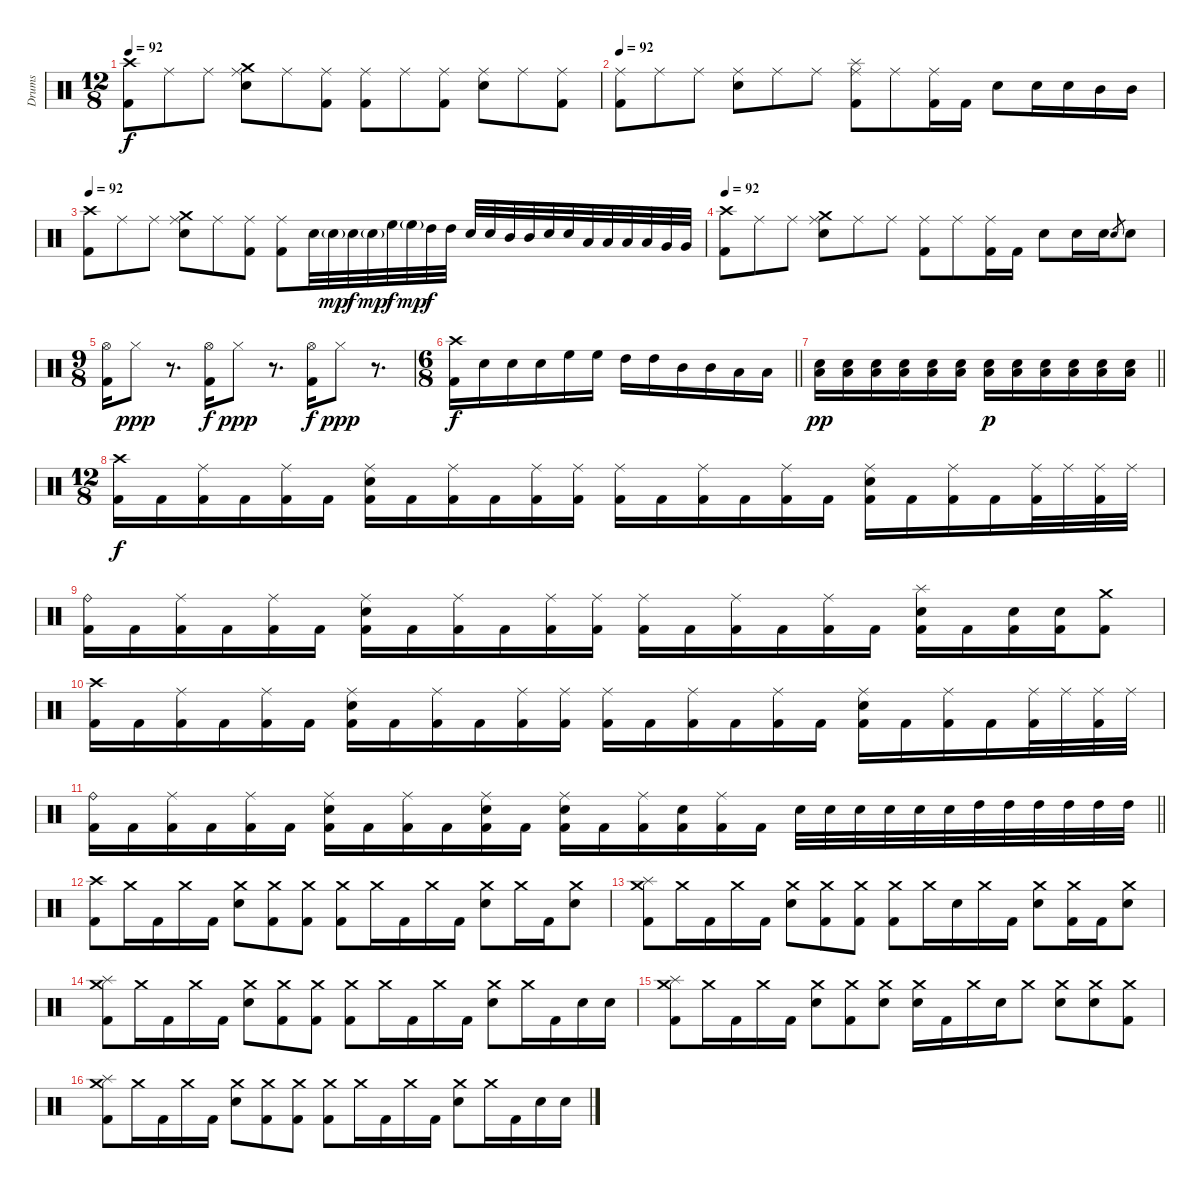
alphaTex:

\track ("Drums" "Drums") {instrument percussion}
\staff {score}
\articulation defaults
\ts (12 8)
\tempo 92
\clef neutral
\ks c
("Crash high (hit)" "Kick (hit) 2").8{dy f} "Ride (middle)".8 "Ride (middle)".8 ("Crash medium (hit)" "Ride (middle)" "Electric Snare (hit)").8 "Ride (middle)".8 ("Ride (middle)" "Kick (hit) 2").8 ("Ride (middle)" "Kick (hit) 2").8 "Ride (middle)".8 ("Ride (middle)" "Kick (hit) 2").8 ("Ride (middle)" "Electric Snare (hit)").8 "Ride (middle)".8 ("Ride (middle)" "Kick (hit) 2").8 |
\tempo 92
("Ride (middle)" "Kick (hit) 2").8 "Ride (middle)".8 "Ride (middle)".8 ("Ride (middle)" "Electric Snare (hit)").8 "Ride (middle)".8 "Ride (middle)".8 ("Splash (hit)" "Ride (middle)" "Kick (hit) 2").8 "Ride (middle)".8 ("Ride (middle)" "Kick (hit) 2").16 "Kick (hit) 2".16 "Electric Snare (hit)".8 "Electric Snare (hit)".16 "Electric Snare (hit)".16 "Mid Tom (hit)".16 "Mid Tom (hit)".16 |
\tempo 92
("Crash high (hit)" "Kick (hit) 2").8 "Ride (middle)".8 "Ride (middle)".8 ("Crash medium (hit)" "Ride (middle)" "Electric Snare (hit)").8 "Ride (middle)".8 ("Ride (middle)" "Kick (hit) 2").8 ("Ride (middle)" "Kick (hit) 2").8 "Electric Snare (hit)".32 "Electric Snare (hit)"{g}.32{dy mp} "Electric Snare (hit)".32{dy f} "Electric Snare (hit)"{g}.32{dy mp} "High Floor Tom (hit)".32{dy f} "High Floor Tom (hit)"{g}.32{dy mp} "High Tom (hit)".32{dy f} "High Tom (hit)".32 "Electric Snare (hit)".32 "Electric Snare (hit)".32 "Mid Tom (hit)".32 "Mid Tom (hit)".32 "Electric Snare (hit)".32 "Electric Snare (hit)".32 "Low Tom (hit)".32 "Low Tom (hit)".32 "Low Tom (hit)".32 "Low Tom (hit)".32 "Very Low Tom (hit)".32 "Very Low Tom (hit)".32 |
\tempo 92
("Crash high (hit)" "Kick (hit) 2").8 "Ride (middle)".8 "Ride (middle)".8 ("Crash medium (hit)" "Ride (middle)" "Electric Snare (hit)").8 "Ride (middle)".8 "Ride (middle)".8 ("Ride (middle)" "Kick (hit) 2").8 "Ride (middle)".8 ("Ride (middle)" "Kick (hit) 2").16 "Kick (hit) 2".16 "Electric Snare (hit)".8 "Electric Snare (hit)".16 "Electric Snare (hit)".16 "Electric Snare (hit)".8{gr} "Electric Snare (hit)".8 |
\ts (9 8)
("Hi-Hat (open)" "Kick (hit) 2").16 "Hi-Hat (closed)".8{dy ppp} r.8{d} ("Hi-Hat (open)" "Kick (hit) 2").16{dy f} "Hi-Hat (closed)".8{dy ppp} r.8{d} ("Hi-Hat (open)" "Kick (hit) 2").16{dy f} "Hi-Hat (closed)".8{dy ppp} r.8{d} |
\ts (6 8)
\barLineRight lightlight
("Crash high (hit)" "Kick (hit) 2").16{dy f} "Electric Snare (hit)".16 "Electric Snare (hit)".16 "Electric Snare (hit)".16 "High Floor Tom (hit)".16 "High Floor Tom (hit)".16 "High Tom (hit)".16 "High Tom (hit)".16 "Mid Tom (hit)".16 "Mid Tom (hit)".16 "Low Tom (hit)".16 "Low Tom (hit)".16 |
\barLineRight lightlight
("Low Tom (hit)" "Electric Snare (hit)").16{dy pp} ("Low Tom (hit)" "Electric Snare (hit)").16 ("Low Tom (hit)" "Electric Snare (hit)").16 ("Low Tom (hit)" "Electric Snare (hit)").16 ("Low Tom (hit)" "Electric Snare (hit)").16 ("Low Tom (hit)" "Electric Snare (hit)").16 ("Low Tom (hit)" "Electric Snare (hit)").16{dy p} ("Low Tom (hit)" "Electric Snare (hit)").16 ("Low Tom (hit)" "Electric Snare (hit)").16 ("Low Tom (hit)" "Electric Snare (hit)").16 ("Low Tom (hit)" "Electric Snare (hit)").16 ("Low Tom (hit)" "Electric Snare (hit)").16 |
\ts (12 8)
("Crash high (hit)" "Kick (hit) 2").16{dy f} "Kick (hit) 2".16 ("Ride (middle)" "Kick (hit) 2").16 "Kick (hit) 2".16 ("Ride (middle)" "Kick (hit) 2").16 "Kick (hit) 2".16 ("Ride (middle)" "Electric Snare (hit)" "Kick (hit) 2").16 "Kick (hit) 2".16 ("Ride (middle)" "Kick (hit) 2").16 "Kick (hit) 2".16 ("Ride (middle)" "Kick (hit) 2").16 ("Ride (middle)" "Kick (hit) 2").16 ("Ride (middle)" "Kick (hit) 2").16 "Kick (hit) 2".16 ("Ride (middle)" "Kick (hit) 2").16 "Kick (hit) 2".16 ("Ride (middle)" "Kick (hit) 2").16 "Kick (hit) 2".16 ("Ride (middle)" "Electric Snare (hit)" "Kick (hit) 2").16 "Kick (hit) 2".16 ("Ride (middle)" "Kick (hit) 2").16 "Kick (hit) 2".16 ("Ride (middle)" "Kick (hit) 2").32 "Ride (middle)".32 ("Ride (middle)" "Kick (hit) 2").32 "Ride (middle)".32 |
("Ride (bell)" "Kick (hit) 2").16 "Kick (hit) 2".16 ("Ride (middle)" "Kick (hit) 2").16 "Kick (hit) 2".16 ("Ride (middle)" "Kick (hit) 2").16 "Kick (hit) 2".16 ("Ride (middle)" "Electric Snare (hit)" "Kick (hit) 2").16 "Kick (hit) 2".16 ("Ride (middle)" "Kick (hit) 2").16 "Kick (hit) 2".16 ("Ride (middle)" "Kick (hit) 2").16 ("Ride (middle)" "Kick (hit) 2").16 ("Ride (middle)" "Kick (hit) 2").16 "Kick (hit) 2".16 ("Ride (middle)" "Kick (hit) 2").16 "Kick (hit) 2".16 ("Ride (middle)" "Kick (hit) 2").16 "Kick (hit) 2".16 ("Splash (hit)" "Electric Snare (hit)" "Kick (hit) 2").16 "Kick (hit) 2".16 ("Electric Snare (hit)" "Kick (hit) 2").16 ("Electric Snare (hit)" "Kick (hit) 2").16 ("Crash medium (hit)" "Kick (hit) 2").8 |
("Crash high (hit)" "Kick (hit) 2").16 "Kick (hit) 2".16 ("Ride (middle)" "Kick (hit) 2").16 "Kick (hit) 2".16 ("Ride (middle)" "Kick (hit) 2").16 "Kick (hit) 2".16 ("Ride (middle)" "Electric Snare (hit)" "Kick (hit) 2").16 "Kick (hit) 2".16 ("Ride (middle)" "Kick (hit) 2").16 "Kick (hit) 2".16 ("Ride (middle)" "Kick (hit) 2").16 ("Ride (middle)" "Kick (hit) 2").16 ("Ride (middle)" "Kick (hit) 2").16 "Kick (hit) 2".16 ("Ride (middle)" "Kick (hit) 2").16 "Kick (hit) 2".16 ("Ride (middle)" "Kick (hit) 2").16 "Kick (hit) 2".16 ("Ride (middle)" "Electric Snare (hit)" "Kick (hit) 2").16 "Kick (hit) 2".16 ("Ride (middle)" "Kick (hit) 2").16 "Kick (hit) 2".16 ("Ride (middle)" "Kick (hit) 2").32 "Ride (middle)".32 ("Ride (middle)" "Kick (hit) 2").32 "Ride (middle)".32 |
\barLineRight lightlight
("Ride (bell)" "Kick (hit) 2").16 "Kick (hit) 2".16 ("Ride (middle)" "Kick (hit) 2").16 "Kick (hit) 2".16 ("Ride (middle)" "Kick (hit) 2").16 "Kick (hit) 2".16 ("Ride (middle)" "Electric Snare (hit)" "Kick (hit) 2").16 "Kick (hit) 2".16 ("Ride (middle)" "Kick (hit) 2").16 "Kick (hit) 2".16 ("Ride (middle)" "Electric Snare (hit)" "Kick (hit) 2").16 "Kick (hit) 2".16 ("Ride (middle)" "Electric Snare (hit)" "Kick (hit) 2").16 "Kick (hit) 2".16 ("Ride (middle)" "Kick (hit) 2").16 ("Electric Snare (hit)" "Kick (hit) 2").16 ("Ride (middle)" "Kick (hit) 2").16 "Kick (hit) 2".16 "Electric Snare (hit)".32 "Electric Snare (hit)".32 "Electric Snare (hit)".32 "Electric Snare (hit)".32 "Electric Snare (hit)".32 "Electric Snare (hit)".32 "High Tom (hit)".32 "High Tom (hit)".32 "High Tom (hit)".32 "High Tom (hit)".32 "High Tom (hit)".32 "High Tom (hit)".32 |
("Crash high (hit)" "Kick (hit) 2").8 "Crash medium (hit)".16 "Kick (hit) 2".16 "Crash medium (hit)".16 "Kick (hit) 2".16 ("Crash medium (hit)" "Electric Snare (hit)").8 ("Crash medium (hit)" "Kick (hit) 2").8 ("Crash medium (hit)" "Kick (hit) 2").8 ("Crash medium (hit)" "Kick (hit) 2").8 "Crash medium (hit)".16 "Kick (hit) 2".16 "Crash medium (hit)".16 "Kick (hit) 2".16 ("Crash medium (hit)" "Electric Snare (hit)").8 "Crash medium (hit)".16 "Kick (hit) 2".16 ("Crash medium (hit)" "Electric Snare (hit)").8 |
("Crash medium (hit)" "Splash (hit)" "Kick (hit) 2").8 "Crash medium (hit)".16 "Kick (hit) 2".16 "Crash medium (hit)".16 "Kick (hit) 2".16 ("Crash medium (hit)" "Electric Snare (hit)").8 ("Crash medium (hit)" "Kick (hit) 2").8 ("Crash medium (hit)" "Kick (hit) 2").8 ("Crash medium (hit)" "Kick (hit) 2").8 "Crash medium (hit)".16 "Electric Snare (hit)".16 "Crash medium (hit)".16 "Kick (hit) 2".16 ("Crash medium (hit)" "Electric Snare (hit)").8 ("Crash medium (hit)" "Kick (hit) 2").16 "Kick (hit) 2".16 ("Crash medium (hit)" "Electric Snare (hit)").8 |
("Crash medium (hit)" "Splash (hit)" "Kick (hit) 2").8 "Crash medium (hit)".16 "Kick (hit) 2".16 "Crash medium (hit)".16 "Kick (hit) 2".16 ("Crash medium (hit)" "Electric Snare (hit)").8 ("Crash medium (hit)" "Kick (hit) 2").8 ("Crash medium (hit)" "Kick (hit) 2").8 ("Crash medium (hit)" "Kick (hit) 2").8 "Crash medium (hit)".16 "Kick (hit) 2".16 "Crash medium (hit)".16 "Kick (hit) 2".16 ("Crash medium (hit)" "Electric Snare (hit)").8 "Crash medium (hit)".16 "Kick (hit) 2".16 "Electric Snare (hit)".16 "Electric Snare (hit)".16 |
("Crash medium (hit)" "Splash (hit)" "Kick (hit) 2").8 "Crash medium (hit)".16 "Kick (hit) 2".16 "Crash medium (hit)".16 "Kick (hit) 2".16 ("Crash medium (hit)" "Electric Snare (hit)").8 ("Crash medium (hit)" "Kick (hit) 2").8 ("Crash medium (hit)" "Electric Snare (hit)").8 ("Crash medium (hit)" "Electric Snare (hit)").16 "Kick (hit) 2".16 "Crash medium (hit)".16 "Electric Snare (hit)".16 "Crash medium (hit)".8 ("Crash medium (hit)" "Electric Snare (hit)").8 ("Crash medium (hit)" "Electric Snare (hit)").8 ("Crash medium (hit)" "Kick (hit) 2").8 |
("Crash medium (hit)" "Splash (hit)" "Kick (hit) 2").8 "Crash medium (hit)".16 "Kick (hit) 2".16 "Crash medium (hit)".16 "Kick (hit) 2".16 ("Crash medium (hit)" "Electric Snare (hit)").8 ("Crash medium (hit)" "Kick (hit) 2").8 ("Crash medium (hit)" "Kick (hit) 2").8 ("Crash medium (hit)" "Kick (hit) 2").8 "Crash medium (hit)".16 "Kick (hit) 2".16 "Crash medium (hit)".16 "Kick (hit) 2".16 ("Crash medium (hit)" "Electric Snare (hit)").8 "Crash medium (hit)".16 "Kick (hit) 2".16 "Electric Snare (hit)".16 "Electric Snare (hit)".16
